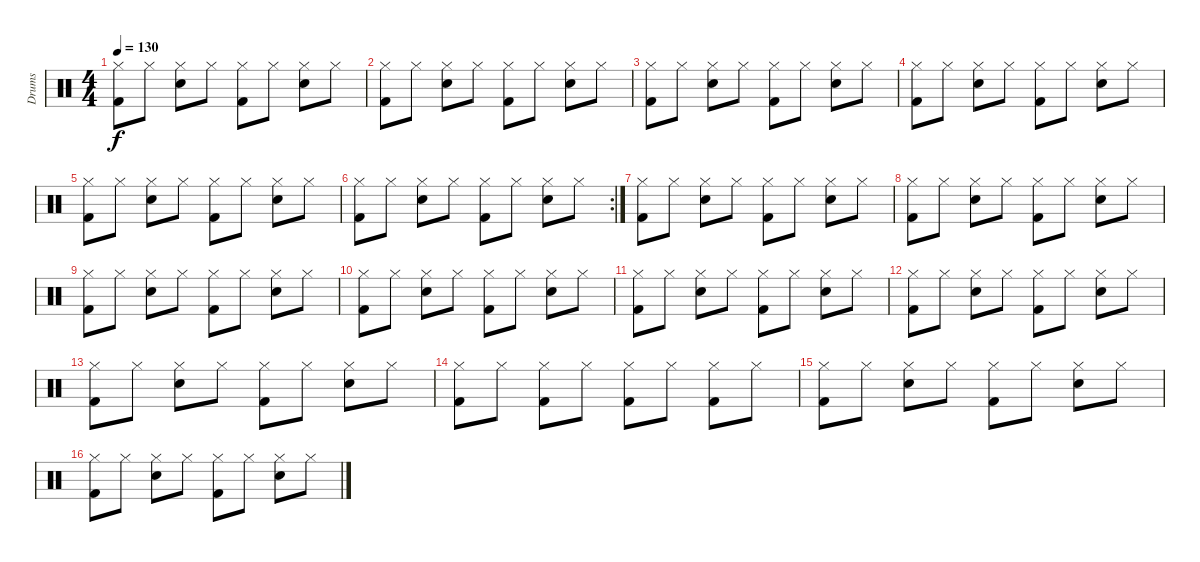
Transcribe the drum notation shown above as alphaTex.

\track ("Drums" "Drums") {instrument percussion}
\staff {score}
\articulation defaults
\ts (4 4)
\tempo 130
\clef neutral
\ks c
("Hi-Hat (closed)" "Kick (hit) 2").8{dy f} "Hi-Hat (closed)".8 ("Hi-Hat (closed)" "Snare (hit) 2").8 "Hi-Hat (closed)".8 ("Hi-Hat (closed)" "Kick (hit) 2").8 "Hi-Hat (closed)".8 ("Hi-Hat (closed)" "Snare (hit) 2").8 "Hi-Hat (closed)".8 |
("Hi-Hat (closed)" "Kick (hit) 2").8 "Hi-Hat (closed)".8 ("Hi-Hat (closed)" "Snare (hit) 2").8 "Hi-Hat (closed)".8 ("Hi-Hat (closed)" "Kick (hit) 2").8 "Hi-Hat (closed)".8 ("Hi-Hat (closed)" "Snare (hit) 2").8 "Hi-Hat (closed)".8 |
("Hi-Hat (closed)" "Kick (hit) 2").8 "Hi-Hat (closed)".8 ("Hi-Hat (closed)" "Snare (hit) 2").8 "Hi-Hat (closed)".8 ("Hi-Hat (closed)" "Kick (hit) 2").8 "Hi-Hat (closed)".8 ("Hi-Hat (closed)" "Snare (hit) 2").8 "Hi-Hat (closed)".8 |
("Hi-Hat (closed)" "Kick (hit) 2").8 "Hi-Hat (closed)".8 ("Hi-Hat (closed)" "Snare (hit) 2").8 "Hi-Hat (closed)".8 ("Hi-Hat (closed)" "Kick (hit) 2").8 "Hi-Hat (closed)".8 ("Hi-Hat (closed)" "Snare (hit) 2").8 "Hi-Hat (closed)".8 |
("Hi-Hat (closed)" "Kick (hit) 2").8 "Hi-Hat (closed)".8 ("Hi-Hat (closed)" "Snare (hit) 2").8 "Hi-Hat (closed)".8 ("Hi-Hat (closed)" "Kick (hit) 2").8 "Hi-Hat (closed)".8 ("Hi-Hat (closed)" "Snare (hit) 2").8 "Hi-Hat (closed)".8 |
\rc 2
("Hi-Hat (closed)" "Kick (hit) 2").8 "Hi-Hat (closed)".8 ("Hi-Hat (closed)" "Snare (hit) 2").8 "Hi-Hat (closed)".8 ("Hi-Hat (closed)" "Kick (hit) 2").8 "Hi-Hat (closed)".8 ("Hi-Hat (closed)" "Snare (hit) 2").8 "Hi-Hat (closed)".8 |
("Hi-Hat (closed)" "Kick (hit) 2").8 "Hi-Hat (closed)".8 ("Hi-Hat (closed)" "Snare (hit) 2").8 "Hi-Hat (closed)".8 ("Hi-Hat (closed)" "Kick (hit) 2").8 "Hi-Hat (closed)".8 ("Hi-Hat (closed)" "Snare (hit) 2").8 "Hi-Hat (closed)".8 |
("Hi-Hat (closed)" "Kick (hit) 2").8 "Hi-Hat (closed)".8 ("Hi-Hat (closed)" "Snare (hit) 2").8 "Hi-Hat (closed)".8 ("Hi-Hat (closed)" "Kick (hit) 2").8 "Hi-Hat (closed)".8 ("Hi-Hat (closed)" "Snare (hit) 2").8 "Hi-Hat (closed)".8 |
("Hi-Hat (closed)" "Kick (hit) 2").8 "Hi-Hat (closed)".8 ("Hi-Hat (closed)" "Snare (hit) 2").8 "Hi-Hat (closed)".8 ("Hi-Hat (closed)" "Kick (hit) 2").8 "Hi-Hat (closed)".8 ("Hi-Hat (closed)" "Snare (hit) 2").8 "Hi-Hat (closed)".8 |
("Hi-Hat (closed)" "Kick (hit) 2").8 "Hi-Hat (closed)".8 ("Hi-Hat (closed)" "Snare (hit) 2").8 "Hi-Hat (closed)".8 ("Hi-Hat (closed)" "Kick (hit) 2").8 "Hi-Hat (closed)".8 ("Hi-Hat (closed)" "Snare (hit) 2").8 "Hi-Hat (closed)".8 |
("Hi-Hat (closed)" "Kick (hit) 2").8 "Hi-Hat (closed)".8 ("Hi-Hat (closed)" "Snare (hit) 2").8 "Hi-Hat (closed)".8 ("Hi-Hat (closed)" "Kick (hit) 2").8 "Hi-Hat (closed)".8 ("Hi-Hat (closed)" "Snare (hit) 2").8 "Hi-Hat (closed)".8 |
("Hi-Hat (closed)" "Kick (hit) 2").8 "Hi-Hat (closed)".8 ("Hi-Hat (closed)" "Snare (hit) 2").8 "Hi-Hat (closed)".8 ("Hi-Hat (closed)" "Kick (hit) 2").8 "Hi-Hat (closed)".8 ("Hi-Hat (closed)" "Snare (hit) 2").8 "Hi-Hat (closed)".8 |
("Hi-Hat (closed)" "Kick (hit) 2").8 "Hi-Hat (closed)".8 ("Hi-Hat (closed)" "Snare (hit) 2").8 "Hi-Hat (closed)".8 ("Hi-Hat (closed)" "Kick (hit) 2").8 "Hi-Hat (closed)".8 ("Hi-Hat (closed)" "Snare (hit) 2").8 "Hi-Hat (closed)".8 |
("Hi-Hat (closed)" "Kick (hit) 2").8 "Hi-Hat (closed)".8 ("Hi-Hat (closed)" "Kick (hit) 2").8 "Hi-Hat (closed)".8 ("Hi-Hat (closed)" "Kick (hit) 2").8 "Hi-Hat (closed)".8 ("Hi-Hat (closed)" "Kick (hit) 2").8 "Hi-Hat (closed)".8 |
("Hi-Hat (closed)" "Kick (hit) 2").8 "Hi-Hat (closed)".8 ("Hi-Hat (closed)" "Snare (hit) 2").8 "Hi-Hat (closed)".8 ("Hi-Hat (closed)" "Kick (hit) 2").8 "Hi-Hat (closed)".8 ("Hi-Hat (closed)" "Snare (hit) 2").8 "Hi-Hat (closed)".8 |
("Hi-Hat (closed)" "Kick (hit) 2").8 "Hi-Hat (closed)".8 ("Hi-Hat (closed)" "Snare (hit) 2").8 "Hi-Hat (closed)".8 ("Hi-Hat (closed)" "Kick (hit) 2").8 "Hi-Hat (closed)".8 ("Hi-Hat (closed)" "Snare (hit) 2").8 "Hi-Hat (closed)".8
